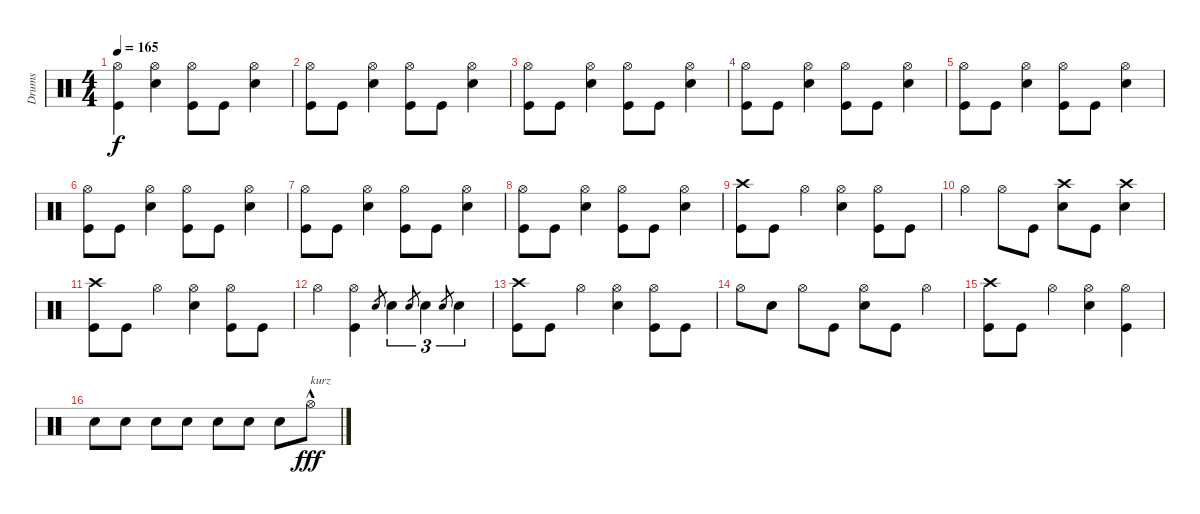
\track ("Drums" "Drums") {instrument percussion}
\staff {score}
\articulation defaults
\ts (4 4)
\tempo 165
\clef neutral
\ks c
("Hi-Hat (open)" "Kick (hit)").4{dy f} ("Hi-Hat (open)" "Snare (hit) 2").4 ("Hi-Hat (open)" "Kick (hit)").8 "Kick (hit)".8 ("Hi-Hat (open)" "Snare (hit) 2").4 |
("Hi-Hat (open)" "Kick (hit)").8 "Kick (hit)".8 ("Hi-Hat (open)" "Snare (hit) 2").4 ("Hi-Hat (open)" "Kick (hit)").8 "Kick (hit)".8 ("Hi-Hat (open)" "Snare (hit) 2").4 |
("Hi-Hat (open)" "Kick (hit)").8 "Kick (hit)".8 ("Hi-Hat (open)" "Snare (hit) 2").4 ("Hi-Hat (open)" "Kick (hit)").8 "Kick (hit)".8 ("Hi-Hat (open)" "Snare (hit) 2").4 |
("Hi-Hat (open)" "Kick (hit)").8 "Kick (hit)".8 ("Hi-Hat (open)" "Snare (hit) 2").4 ("Hi-Hat (open)" "Kick (hit)").8 "Kick (hit)".8 ("Hi-Hat (open)" "Snare (hit) 2").4 |
("Hi-Hat (open)" "Kick (hit)").8 "Kick (hit)".8 ("Hi-Hat (open)" "Snare (hit) 2").4 ("Hi-Hat (open)" "Kick (hit)").8 "Kick (hit)".8 ("Hi-Hat (open)" "Snare (hit) 2").4 |
("Hi-Hat (open)" "Kick (hit)").8 "Kick (hit)".8 ("Hi-Hat (open)" "Snare (hit) 2").4 ("Hi-Hat (open)" "Kick (hit)").8 "Kick (hit)".8 ("Hi-Hat (open)" "Snare (hit) 2").4 |
("Hi-Hat (open)" "Kick (hit)").8 "Kick (hit)".8 ("Hi-Hat (open)" "Snare (hit) 2").4 ("Hi-Hat (open)" "Kick (hit)").8 "Kick (hit)".8 ("Hi-Hat (open)" "Snare (hit) 2").4 |
("Hi-Hat (open)" "Kick (hit)").8 "Kick (hit)".8 ("Hi-Hat (open)" "Snare (hit) 2").4 ("Hi-Hat (open)" "Kick (hit)").8 "Kick (hit)".8 ("Hi-Hat (open)" "Snare (hit) 2").4 |
("Crash high (hit)" "Kick (hit)").8 "Kick (hit)".8 "Hi-Hat (open)".4 ("Hi-Hat (open)" "Snare (hit) 2").4 ("Hi-Hat (open)" "Kick (hit)").8 "Kick (hit)".8 |
"Hi-Hat (open)".4 "Hi-Hat (open)".8 "Kick (hit)".8 ("Crash high (hit)" "Snare (hit) 2").8 "Kick (hit)".8 ("Crash high (hit)" "Snare (hit) 2").4 |
("Crash high (hit)" "Kick (hit)").8 "Kick (hit)".8 "Hi-Hat (open)".4 ("Hi-Hat (open)" "Snare (hit) 2").4 ("Hi-Hat (open)" "Kick (hit)").8 "Kick (hit)".8 |
"Hi-Hat (open)".4 ("Hi-Hat (open)" "Kick (hit)").4 "Snare (hit) 2".8{gr} "Snare (hit) 2".4{tu (3 2)} "Snare (hit) 2".8{gr} "Snare (hit) 2".4{tu (3 2)} "Snare (hit) 2".8{gr} "Snare (hit) 2".4{tu (3 2)} |
("Crash high (hit)" "Kick (hit)").8 "Kick (hit)".8 "Hi-Hat (open)".4 ("Hi-Hat (open)" "Snare (hit) 2").4 ("Hi-Hat (open)" "Kick (hit)").8 "Kick (hit)".8 |
"Hi-Hat (open)".8 "Snare (hit) 2".8 "Hi-Hat (open)".8 "Kick (hit)".8 ("Hi-Hat (open)" "Snare (hit) 2").8 "Kick (hit)".8 "Hi-Hat (open)".4 |
("Crash high (hit)" "Kick (hit)").8 "Kick (hit)".8 "Hi-Hat (open)".4 ("Hi-Hat (open)" "Snare (hit) 2").4 ("Hi-Hat (open)" "Kick (hit)").4 |
"Snare (hit) 2".8 "Snare (hit) 2".8 "Snare (hit) 2".8 "Snare (hit) 2".8 "Snare (hit) 2".8 "Snare (hit) 2".8 "Snare (hit) 2".8 "Hi-Hat (open)"{hac}.8{txt "kurz" dy fff}
